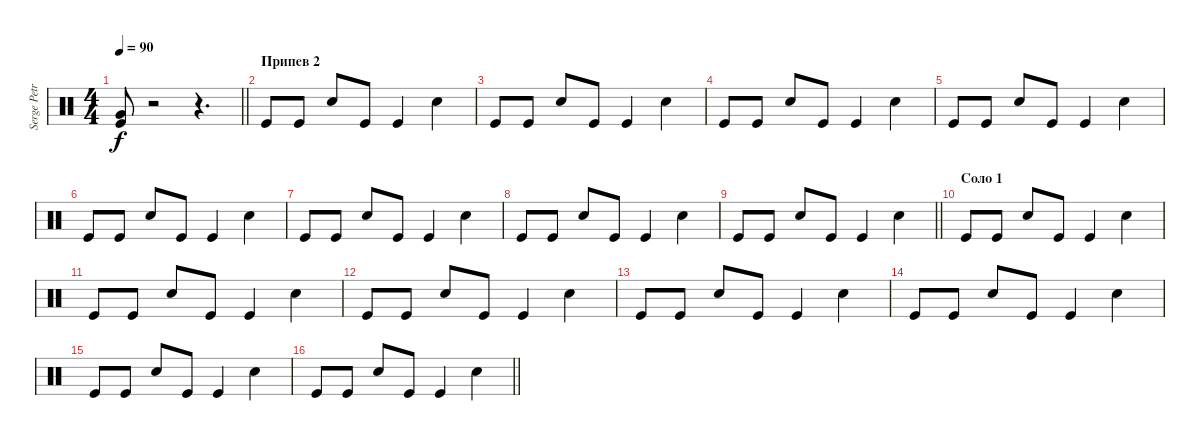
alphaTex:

\track ("Serge Petrone" "Serge Petr") {instrument percussion}
\staff {score}
\articulation defaults
\ts (4 4)
\tempo 90
\clef neutral
\barLineRight lightlight
\ks c
("Kick (hit)" "Very Low Tom (hit)").8{dy f} r.2 r.4{d} |
\section ("" "Припев 2")
"Kick (hit)".8 "Kick (hit)".8 "Snare (hit) 2".8 "Kick (hit)".8 "Kick (hit)".4 "Snare (hit) 2".4 |
"Kick (hit)".8 "Kick (hit)".8 "Snare (hit) 2".8 "Kick (hit)".8 "Kick (hit)".4 "Snare (hit) 2".4 |
"Kick (hit)".8 "Kick (hit)".8 "Snare (hit) 2".8 "Kick (hit)".8 "Kick (hit)".4 "Snare (hit) 2".4 |
"Kick (hit)".8 "Kick (hit)".8 "Snare (hit) 2".8 "Kick (hit)".8 "Kick (hit)".4 "Snare (hit) 2".4 |
"Kick (hit)".8 "Kick (hit)".8 "Snare (hit) 2".8 "Kick (hit)".8 "Kick (hit)".4 "Snare (hit) 2".4 |
"Kick (hit)".8 "Kick (hit)".8 "Snare (hit) 2".8 "Kick (hit)".8 "Kick (hit)".4 "Snare (hit) 2".4 |
"Kick (hit)".8 "Kick (hit)".8 "Snare (hit) 2".8 "Kick (hit)".8 "Kick (hit)".4 "Snare (hit) 2".4 |
\barLineRight lightlight "Kick (hit)".8 "Kick (hit)".8 "Snare (hit) 2".8 "Kick (hit)".8 "Kick (hit)".4 "Snare (hit) 2".4
|
\section ("" "Соло 1")
"Kick (hit)".8 "Kick (hit)".8 "Snare (hit) 2".8 "Kick (hit)".8 "Kick (hit)".4 "Snare (hit) 2".4 |
"Kick (hit)".8 "Kick (hit)".8 "Snare (hit) 2".8 "Kick (hit)".8 "Kick (hit)".4 "Snare (hit) 2".4 |
"Kick (hit)".8 "Kick (hit)".8 "Snare (hit) 2".8 "Kick (hit)".8 "Kick (hit)".4 "Snare (hit) 2".4 |
"Kick (hit)".8 "Kick (hit)".8 "Snare (hit) 2".8 "Kick (hit)".8 "Kick (hit)".4 "Snare (hit) 2".4 |
"Kick (hit)".8 "Kick (hit)".8 "Snare (hit) 2".8 "Kick (hit)".8 "Kick (hit)".4 "Snare (hit) 2".4 |
"Kick (hit)".8 "Kick (hit)".8 "Snare (hit) 2".8 "Kick (hit)".8 "Kick (hit)".4 "Snare (hit) 2".4 |
\barLineRight lightlight "Kick (hit)".8 "Kick (hit)".8 "Snare (hit) 2".8 "Kick (hit)".8 "Kick (hit)".4 "Snare (hit) 2".4
